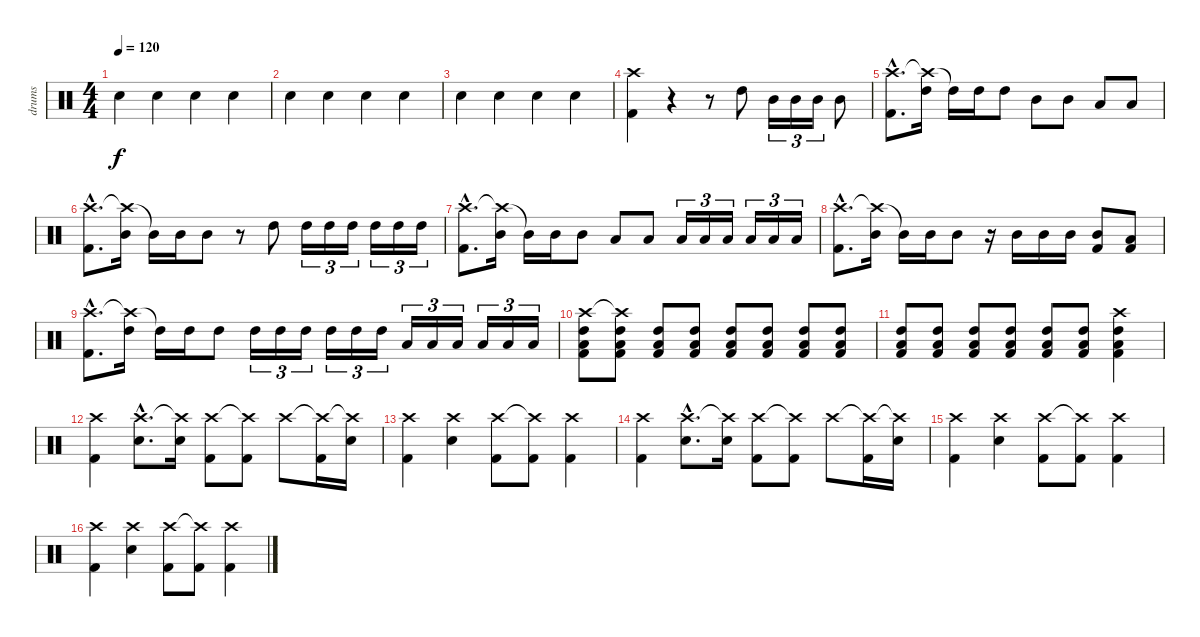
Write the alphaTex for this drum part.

\track ("drums" "drums") {instrument percussion}
\staff {score}
\articulation defaults
\ts (4 4)
\tempo 120
\clef neutral
\ks c "Electric Snare (hit)".4{dy f} "Electric Snare (hit)".4 "Electric Snare (hit)".4 "Electric Snare (hit)".4
|
"Electric Snare (hit)".4 "Electric Snare (hit)".4 "Electric Snare (hit)".4 "Electric Snare (hit)".4 |
"Electric Snare (hit)".4 "Electric Snare (hit)".4 "Electric Snare (hit)".4 "Electric Snare (hit)".4 |
("Crash high (hit)" "Kick (hit) 2").4 r.4 r.8 "High Tom (hit)".8 "Mid Tom (hit)".16{tu (3 2)} "Mid Tom (hit)".16{tu (3 2)} "Mid Tom (hit)".16{tu (3 2)} "Mid Tom (hit)".8 |
("Crash high (hit)"{hac} "Kick (hit) 2"{hac}).8{d} ("Crash high (hit)"{t} "High Tom (hit)").16 "High Tom (hit)"{t}.16 "High Tom (hit)".16 "High Tom (hit)".8 "Mid Tom (hit)".8 "Mid Tom (hit)".8 "Low Tom (hit)".8 "Low Tom (hit)".8 |
("Crash high (hit)"{hac} "Kick (hit) 2"{hac}).8{d} ("Crash high (hit)"{t} "Mid Tom (hit)").16 "Mid Tom (hit)"{t}.16 "Mid Tom (hit)".16 "Mid Tom (hit)".8 r.8 "High Tom (hit)".8 "High Tom (hit)".16{tu (3 2)} "High Tom (hit)".16{tu (3 2)} "High Tom (hit)".16{tu (3 2)} "High Tom (hit)".16{tu (3 2)} "High Tom (hit)".16{tu (3 2)} "High Tom (hit)".16{tu (3 2)} |
("Crash high (hit)"{hac} "Kick (hit) 2"{hac}).8{d} ("Crash high (hit)"{t} "Mid Tom (hit)").16 "Mid Tom (hit)"{t}.16 "Mid Tom (hit)".16 "Mid Tom (hit)".8 "Low Tom (hit)".8 "Low Tom (hit)".8 "Low Tom (hit)".16{tu (3 2)} "Low Tom (hit)".16{tu (3 2)} "Low Tom (hit)".16{tu (3 2)} "Low Tom (hit)".16{tu (3 2)} "Low Tom (hit)".16{tu (3 2)} "Low Tom (hit)".16{tu (3 2)} |
("Crash high (hit)"{hac} "Kick (hit) 2"{hac}).8{d} ("Crash high (hit)"{t} "Mid Tom (hit)").16 "Mid Tom (hit)"{t}.16 "Mid Tom (hit)".16 "Mid Tom (hit)".8 r.16 "Mid Tom (hit)".16 "Mid Tom (hit)".16 "Mid Tom (hit)".16 ("Mid Tom (hit)" "Kick (hit) 2").8 ("Low Tom (hit)" "Kick (hit) 2").8 |
("Crash high (hit)"{hac} "Kick (hit) 2"{hac}).8{d} ("Crash high (hit)"{t} "High Tom (hit)").16 "High Tom (hit)"{t}.16 "High Tom (hit)".16 "High Tom (hit)".8 "High Tom (hit)".16{tu (3 2)} "High Tom (hit)".16{tu (3 2)} "High Tom (hit)".16{tu (3 2)} "High Tom (hit)".16{tu (3 2)} "High Tom (hit)".16{tu (3 2)} "High Tom (hit)".16{tu (3 2)} "Low Tom (hit)".16{tu (3 2)} "Low Tom (hit)".16{tu (3 2)} "Low Tom (hit)".16{tu (3 2)} "Low Tom (hit)".16{tu (3 2)} "Low Tom (hit)".16{tu (3 2)} "Low Tom (hit)".16{tu (3 2)} |
("Crash high (hit)" "High Tom (hit)" "Kick (hit) 2" "Low Tom (hit)").8 ("Crash high (hit)"{t} "High Tom (hit)" "Kick (hit) 2" "Low Tom (hit)").8 ("High Tom (hit)" "Kick (hit) 2" "Low Tom (hit)").8 ("High Tom (hit)" "Kick (hit) 2" "Low Tom (hit)").8 ("High Tom (hit)" "Kick (hit) 2" "Low Tom (hit)").8 ("High Tom (hit)" "Kick (hit) 2" "Low Tom (hit)").8 ("High Tom (hit)" "Kick (hit) 2" "Low Tom (hit)").8 ("High Tom (hit)" "Kick (hit) 2" "Low Tom (hit)").8 |
("High Tom (hit)" "Kick (hit) 2" "Low Tom (hit)").8 ("High Tom (hit)" "Kick (hit) 2" "Low Tom (hit)").8 ("High Tom (hit)" "Kick (hit) 2" "Low Tom (hit)").8 ("High Tom (hit)" "Kick (hit) 2" "Low Tom (hit)").8 ("High Tom (hit)" "Kick (hit) 2" "Low Tom (hit)").8 ("High Tom (hit)" "Kick (hit) 2" "Low Tom (hit)").8 ("Crash high (hit)" "High Tom (hit)" "Kick (hit) 2" "Low Tom (hit)").4 |
("Crash high (hit)" "Kick (hit) 2").4 ("Crash high (hit)"{hac} "Snare (hit) 2"{hac}).8{d} ("Crash high (hit)"{t} "Snare (hit) 2").16 ("Crash high (hit)" "Kick (hit) 2").8 ("Crash high (hit)"{t} "Kick (hit) 2").8 "Crash high (hit)".8 ("Crash high (hit)"{t} "Kick (hit) 2").16 ("Crash high (hit)"{t} "Snare (hit) 2").16 |
("Crash high (hit)" "Kick (hit) 2").4 ("Crash high (hit)" "Snare (hit) 2").4 ("Crash high (hit)" "Kick (hit) 2").8 ("Crash high (hit)"{t} "Kick (hit) 2").8 ("Crash high (hit)" "Kick (hit) 2").4 |
("Crash high (hit)" "Kick (hit) 2").4 ("Crash high (hit)"{hac} "Snare (hit) 2"{hac}).8{d} ("Crash high (hit)"{t} "Snare (hit) 2").16 ("Crash high (hit)" "Kick (hit) 2").8 ("Crash high (hit)"{t} "Kick (hit) 2").8 "Crash high (hit)".8 ("Crash high (hit)"{t} "Kick (hit) 2").16 ("Crash high (hit)"{t} "Snare (hit) 2").16 |
("Crash high (hit)" "Kick (hit) 2").4 ("Crash high (hit)" "Snare (hit) 2").4 ("Crash high (hit)" "Kick (hit) 2").8 ("Crash high (hit)"{t} "Kick (hit) 2").8 ("Crash high (hit)" "Kick (hit) 2").4 |
("Crash high (hit)" "Kick (hit) 2").4 ("Crash high (hit)" "Snare (hit) 2").4 ("Crash high (hit)" "Kick (hit) 2").8 ("Crash high (hit)"{t} "Kick (hit) 2").8 ("Crash high (hit)" "Kick (hit) 2").4
